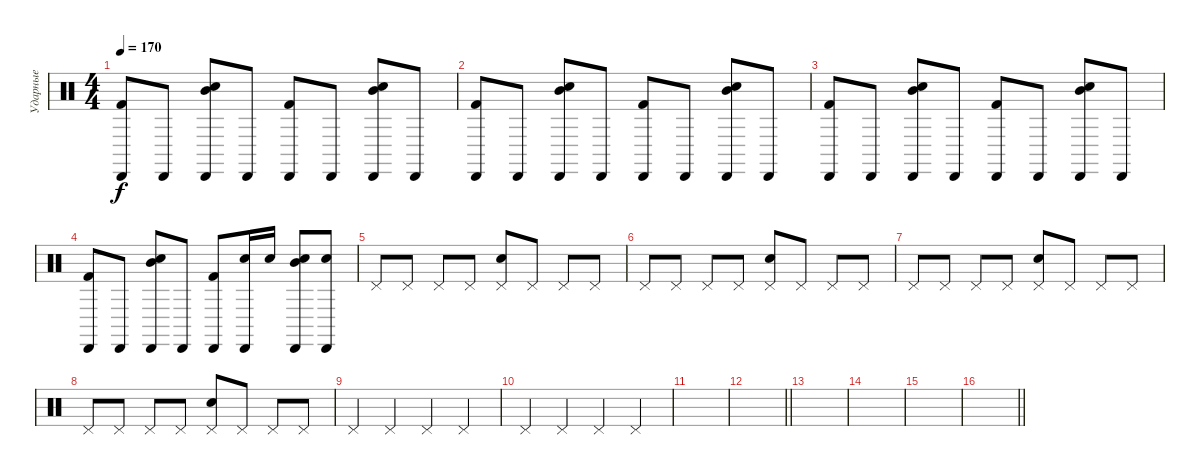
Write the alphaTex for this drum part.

\track ("Ударные" "Ударные") {instrument percussion}
\staff {score}
\articulation defaults
\ts (4 4)
\tempo 170
\clef neutral
\ks c
("Kick (hit) 2" "Cabasa (hit)").8{dy f} "Cabasa (hit)".8 ("Electric Snare (hit)" "Mid Tom (hit)" "Cabasa (hit)").8 "Cabasa (hit)".8 ("Cabasa (hit)" "Kick (hit) 2").8 "Cabasa (hit)".8 ("Cabasa (hit)" "Electric Snare (hit)" "Mid Tom (hit)").8 "Cabasa (hit)".8 |
("Cabasa (hit)" "Kick (hit) 2").8 "Cabasa (hit)".8 ("Electric Snare (hit)" "Cabasa (hit)" "Mid Tom (hit)").8 "Cabasa (hit)".8 ("Cabasa (hit)" "Kick (hit) 2").8 "Cabasa (hit)".8 ("Mid Tom (hit)" "Electric Snare (hit)" "Cabasa (hit)").8 "Cabasa (hit)".8 |
("Kick (hit) 2" "Cabasa (hit)").8 "Cabasa (hit)".8 ("Electric Snare (hit)" "Mid Tom (hit)" "Cabasa (hit)").8 "Cabasa (hit)".8 ("Cabasa (hit)" "Kick (hit) 2").8 "Cabasa (hit)".8 ("Cabasa (hit)" "Electric Snare (hit)" "Mid Tom (hit)").8 "Cabasa (hit)".8 |
("Cabasa (hit)" "Kick (hit) 2").8 "Cabasa (hit)".8 ("Electric Snare (hit)" "Cabasa (hit)" "Mid Tom (hit)").8 "Cabasa (hit)".8 ("Cabasa (hit)" "Kick (hit) 2").8 ("Electric Snare (hit)" "Cabasa (hit)").16 "Electric Snare (hit)".16 ("Electric Snare (hit)" "Mid Tom (hit)" "Cabasa (hit)").8 ("Electric Snare (hit)" "Cabasa (hit)").8 |
"Pedal Hi-Hat (hit)".8 "Pedal Hi-Hat (hit)".8 "Pedal Hi-Hat (hit)".8 "Pedal Hi-Hat (hit)".8 ("Electric Snare (hit)" "Pedal Hi-Hat (hit)").8 "Pedal Hi-Hat (hit)".8 "Pedal Hi-Hat (hit)".8 "Pedal Hi-Hat (hit)".8 |
"Pedal Hi-Hat (hit)".8 "Pedal Hi-Hat (hit)".8 "Pedal Hi-Hat (hit)".8 "Pedal Hi-Hat (hit)".8 ("Electric Snare (hit)" "Pedal Hi-Hat (hit)").8 "Pedal Hi-Hat (hit)".8 "Pedal Hi-Hat (hit)".8 "Pedal Hi-Hat (hit)".8 |
"Pedal Hi-Hat (hit)".8 "Pedal Hi-Hat (hit)".8 "Pedal Hi-Hat (hit)".8 "Pedal Hi-Hat (hit)".8 ("Electric Snare (hit)" "Pedal Hi-Hat (hit)").8 "Pedal Hi-Hat (hit)".8 "Pedal Hi-Hat (hit)".8 "Pedal Hi-Hat (hit)".8 |
"Pedal Hi-Hat (hit)".8 "Pedal Hi-Hat (hit)".8 "Pedal Hi-Hat (hit)".8 "Pedal Hi-Hat (hit)".8 ("Electric Snare (hit)" "Pedal Hi-Hat (hit)").8 "Pedal Hi-Hat (hit)".8 "Pedal Hi-Hat (hit)".8 "Pedal Hi-Hat (hit)".8 |
"Pedal Hi-Hat (hit)".4 "Pedal Hi-Hat (hit)".4 "Pedal Hi-Hat (hit)".4 "Pedal Hi-Hat (hit)".4 |
"Pedal Hi-Hat (hit)".4 "Pedal Hi-Hat (hit)".4 "Pedal Hi-Hat (hit)".4 "Pedal Hi-Hat (hit)".4 |
|
\barLineRight lightlight
|
|
|
|
\barLineRight lightlight
